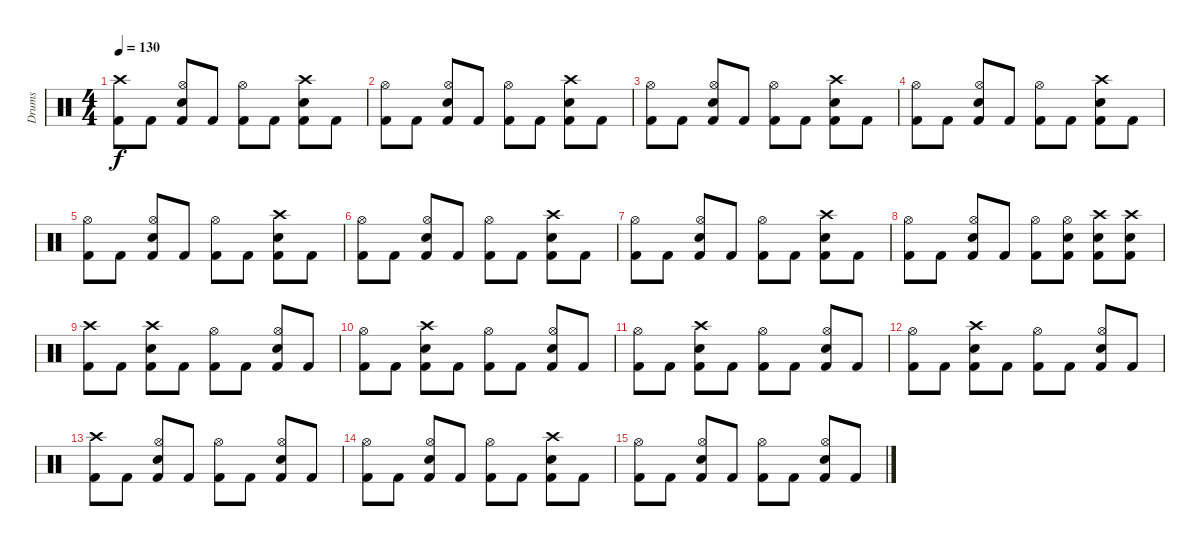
\track ("Drums" "Drums") {instrument percussion}
\staff {score}
\articulation defaults
\ts (4 4)
\tempo 130
\clef neutral
\ks c
("Crash high (hit)" "Kick (hit) 2").8{dy f} "Kick (hit) 2".8 ("Hi-Hat (open)" "Electric Snare (hit)" "Kick (hit) 2").8 "Kick (hit) 2".8 ("Hi-Hat (open)" "Kick (hit) 2").8 "Kick (hit) 2".8 ("Crash high (hit)" "Electric Snare (hit)" "Kick (hit) 2").8 "Kick (hit) 2".8 |
("Hi-Hat (open)" "Kick (hit) 2").8 "Kick (hit) 2".8 ("Hi-Hat (open)" "Electric Snare (hit)" "Kick (hit) 2").8 "Kick (hit) 2".8 ("Hi-Hat (open)" "Kick (hit) 2").8 "Kick (hit) 2".8 ("Crash high (hit)" "Electric Snare (hit)" "Kick (hit) 2").8 "Kick (hit) 2".8 |
("Hi-Hat (open)" "Kick (hit) 2").8 "Kick (hit) 2".8 ("Hi-Hat (open)" "Electric Snare (hit)" "Kick (hit) 2").8 "Kick (hit) 2".8 ("Hi-Hat (open)" "Kick (hit) 2").8 "Kick (hit) 2".8 ("Crash high (hit)" "Electric Snare (hit)" "Kick (hit) 2").8 "Kick (hit) 2".8 |
("Hi-Hat (open)" "Kick (hit) 2").8 "Kick (hit) 2".8 ("Hi-Hat (open)" "Electric Snare (hit)" "Kick (hit) 2").8 "Kick (hit) 2".8 ("Hi-Hat (open)" "Kick (hit) 2").8 "Kick (hit) 2".8 ("Crash high (hit)" "Electric Snare (hit)" "Kick (hit) 2").8 "Kick (hit) 2".8 |
("Hi-Hat (open)" "Kick (hit) 2").8 "Kick (hit) 2".8 ("Hi-Hat (open)" "Electric Snare (hit)" "Kick (hit) 2").8 "Kick (hit) 2".8 ("Hi-Hat (open)" "Kick (hit) 2").8 "Kick (hit) 2".8 ("Crash high (hit)" "Electric Snare (hit)" "Kick (hit) 2").8 "Kick (hit) 2".8 |
("Hi-Hat (open)" "Kick (hit) 2").8 "Kick (hit) 2".8 ("Hi-Hat (open)" "Electric Snare (hit)" "Kick (hit) 2").8 "Kick (hit) 2".8 ("Hi-Hat (open)" "Kick (hit) 2").8 "Kick (hit) 2".8 ("Crash high (hit)" "Electric Snare (hit)" "Kick (hit) 2").8 "Kick (hit) 2".8 |
("Hi-Hat (open)" "Kick (hit) 2").8 "Kick (hit) 2".8 ("Hi-Hat (open)" "Electric Snare (hit)" "Kick (hit) 2").8 "Kick (hit) 2".8 ("Hi-Hat (open)" "Kick (hit) 2").8 "Kick (hit) 2".8 ("Crash high (hit)" "Electric Snare (hit)" "Kick (hit) 2").8 "Kick (hit) 2".8 |
("Hi-Hat (open)" "Kick (hit) 2").8 "Kick (hit) 2".8 ("Hi-Hat (open)" "Electric Snare (hit)" "Kick (hit) 2").8 "Kick (hit) 2".8 ("Hi-Hat (open)" "Kick (hit) 2").8 ("Hi-Hat (open)" "Electric Snare (hit)" "Kick (hit) 2").8 ("Crash high (hit)" "Electric Snare (hit)" "Kick (hit) 2").8 ("Crash high (hit)" "Electric Snare (hit)" "Kick (hit) 2").8 |
("Crash high (hit)" "Kick (hit) 2").8 "Kick (hit) 2".8 ("Crash high (hit)" "Electric Snare (hit)" "Kick (hit) 2").8 "Kick (hit) 2".8 ("Hi-Hat (open)" "Kick (hit) 2").8 "Kick (hit) 2".8 ("Hi-Hat (open)" "Electric Snare (hit)" "Kick (hit) 2").8 "Kick (hit) 2".8 |
("Hi-Hat (open)" "Kick (hit) 2").8 "Kick (hit) 2".8 ("Crash high (hit)" "Electric Snare (hit)" "Kick (hit) 2").8 "Kick (hit) 2".8 ("Hi-Hat (open)" "Kick (hit) 2").8 "Kick (hit) 2".8 ("Hi-Hat (open)" "Electric Snare (hit)" "Kick (hit) 2").8 "Kick (hit) 2".8 |
("Hi-Hat (open)" "Kick (hit) 2").8 "Kick (hit) 2".8 ("Crash high (hit)" "Electric Snare (hit)" "Kick (hit) 2").8 "Kick (hit) 2".8 ("Hi-Hat (open)" "Kick (hit) 2").8 "Kick (hit) 2".8 ("Hi-Hat (open)" "Electric Snare (hit)" "Kick (hit) 2").8 "Kick (hit) 2".8 |
("Hi-Hat (open)" "Kick (hit) 2").8 "Kick (hit) 2".8 ("Crash high (hit)" "Electric Snare (hit)" "Kick (hit) 2").8 "Kick (hit) 2".8 ("Hi-Hat (open)" "Kick (hit) 2").8 "Kick (hit) 2".8 ("Hi-Hat (open)" "Electric Snare (hit)" "Kick (hit) 2").8 "Kick (hit) 2".8 |
("Crash high (hit)" "Kick (hit) 2").8 "Kick (hit) 2".8 ("Hi-Hat (open)" "Electric Snare (hit)" "Kick (hit) 2").8 "Kick (hit) 2".8 ("Hi-Hat (open)" "Kick (hit) 2").8 "Kick (hit) 2".8 ("Hi-Hat (open)" "Electric Snare (hit)" "Kick (hit) 2").8 "Kick (hit) 2".8 |
("Hi-Hat (open)" "Kick (hit) 2").8 "Kick (hit) 2".8 ("Hi-Hat (open)" "Electric Snare (hit)" "Kick (hit) 2").8 "Kick (hit) 2".8 ("Hi-Hat (open)" "Kick (hit) 2").8 "Kick (hit) 2".8 ("Crash high (hit)" "Electric Snare (hit)" "Kick (hit) 2").8 "Kick (hit) 2".8 |
("Hi-Hat (open)" "Kick (hit) 2").8 "Kick (hit) 2".8 ("Hi-Hat (open)" "Electric Snare (hit)" "Kick (hit) 2").8 "Kick (hit) 2".8 ("Hi-Hat (open)" "Kick (hit) 2").8 "Kick (hit) 2".8 ("Hi-Hat (open)" "Electric Snare (hit)" "Kick (hit) 2").8 "Kick (hit) 2".8
